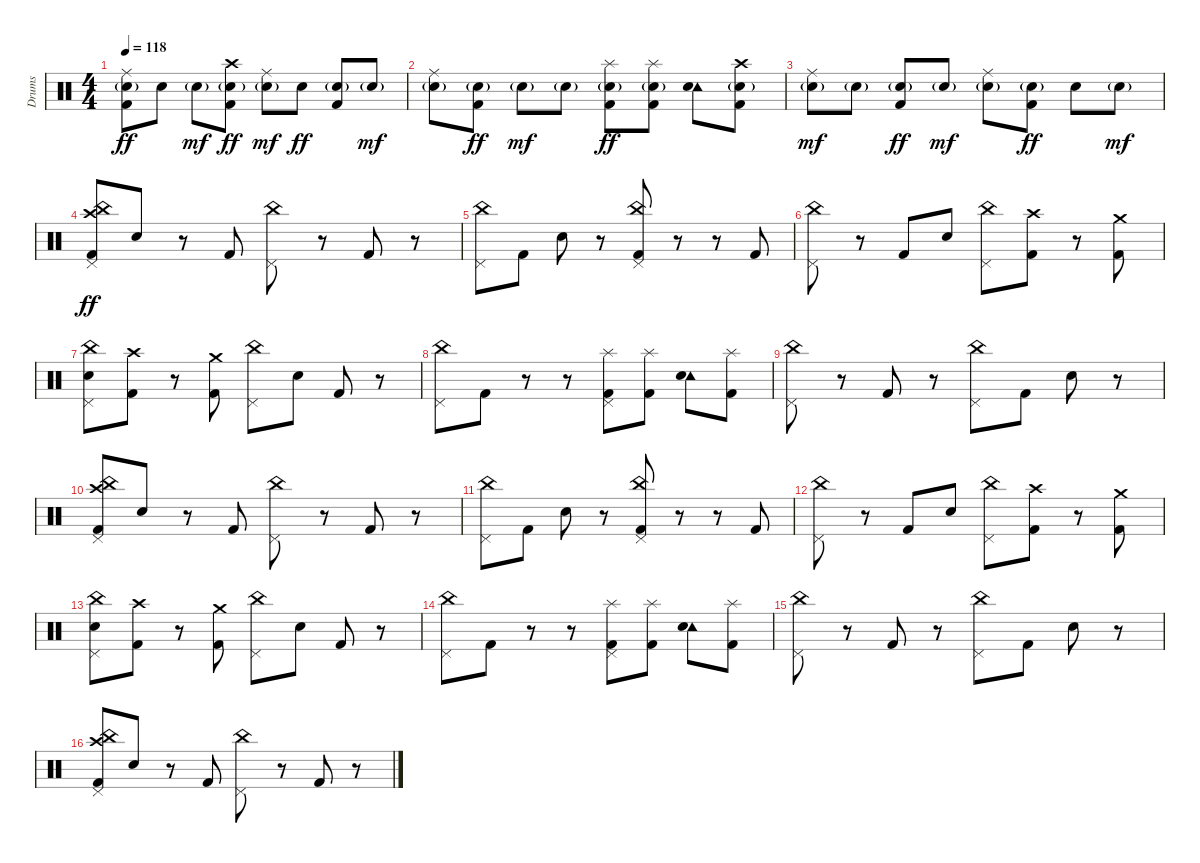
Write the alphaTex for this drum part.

\track ("Drums" "Drums") {instrument percussion}
\staff {score}
\articulation defaults
\ts (4 4)
\tempo 118
\clef neutral
\ks c
("Ride (middle)" "Electric Snare (hit)"{g} "Kick (hit) 2").8{dy ff} "Electric Snare (hit)".8 "Electric Snare (hit)"{g}.8{dy mf} ("Crash high (hit)" "Electric Snare (hit)"{g} "Kick (hit) 2").8{dy ff} ("Ride (middle)" "Electric Snare (hit)"{g}).8{dy mf} "Electric Snare (hit)".8{dy ff} ("Electric Snare (hit)"{g} "Kick (hit) 2").8 "Electric Snare (hit)"{g}.8{dy mf} |
("Ride (middle)" "Electric Snare (hit)"{g}).8 ("Electric Snare (hit)"{g} "Kick (hit) 2").8{dy ff} "Electric Snare (hit)"{g}.8{dy mf} "Electric Snare (hit)"{g}.8 ("Splash (hit)" "Electric Snare (hit)"{g} "Kick (hit) 2").8{dy ff} ("Splash (hit)" "Electric Snare (hit)"{g} "Kick (hit) 2").8 ("Tambourine (hit)" "Electric Snare (hit)").8 ("Crash high (hit)" "Electric Snare (hit)"{g} "Kick (hit) 2").8 |
("Ride (middle)" "Electric Snare (hit)"{g}).8{dy mf} "Electric Snare (hit)"{g}.8 ("Electric Snare (hit)"{g} "Kick (hit) 2").8{dy ff} "Electric Snare (hit)"{g}.8{dy mf} ("Ride (middle)" "Electric Snare (hit)"{g}).8 ("Electric Snare (hit)"{g} "Kick (hit) 2").8{dy ff} "Electric Snare (hit)".8 "Electric Snare (hit)"{g}.8{dy mf} |
\section ("" "")
("Crash high (hit)" "China (hit)" "Pedal Hi-Hat (hit)" "Kick (hit) 2").8{dy ff} "Electric Snare (hit)".8 r.8 "Kick (hit) 2".8 ("China (hit)" "Pedal Hi-Hat (hit)").8 r.8 "Kick (hit) 2".8 r.8 |
("China (hit)" "Pedal Hi-Hat (hit)").8 "Kick (hit) 2".8 "Electric Snare (hit)".8 r.8 ("China (hit)" "Pedal Hi-Hat (hit)" "Kick (hit) 2").8 r.8 r.8 "Kick (hit) 2".8 |
("China (hit)" "Pedal Hi-Hat (hit)").8 r.8 "Kick (hit) 2".8 "Electric Snare (hit)".8 ("China (hit)" "Pedal Hi-Hat (hit)").8 ("Crash high (hit)" "Kick (hit) 2").8 r.8 ("Crash medium (hit)" "Kick (hit) 2").8 |
("China (hit)" "Pedal Hi-Hat (hit)" "Electric Snare (hit)").8 ("Crash high (hit)" "Kick (hit) 2").8 r.8 ("Crash medium (hit)" "Kick (hit) 2").8 ("China (hit)" "Pedal Hi-Hat (hit)").8 "Electric Snare (hit)".8 "Kick (hit) 2".8 r.8 |
("China (hit)" "Pedal Hi-Hat (hit)").8 "Kick (hit) 2".8 r.8 r.8 ("Splash (hit)" "Pedal Hi-Hat (hit)" "Kick (hit) 2").8 ("Splash (hit)" "Kick (hit) 2").8 ("Tambourine (hit)" "Electric Snare (hit)").8 ("Splash (hit)" "Kick (hit) 2").8 |
("China (hit)" "Pedal Hi-Hat (hit)").8 r.8 "Kick (hit) 2".8 r.8 ("China (hit)" "Pedal Hi-Hat (hit)").8 "Kick (hit) 2".8 "Electric Snare (hit)".8 r.8 |
("Crash high (hit)" "China (hit)" "Pedal Hi-Hat (hit)" "Kick (hit) 2").8 "Electric Snare (hit)".8 r.8 "Kick (hit) 2".8 ("China (hit)" "Pedal Hi-Hat (hit)").8 r.8 "Kick (hit) 2".8 r.8 |
("China (hit)" "Pedal Hi-Hat (hit)").8 "Kick (hit) 2".8 "Electric Snare (hit)".8 r.8 ("China (hit)" "Pedal Hi-Hat (hit)" "Kick (hit) 2").8 r.8 r.8 "Kick (hit) 2".8 |
("China (hit)" "Pedal Hi-Hat (hit)").8 r.8 "Kick (hit) 2".8 "Electric Snare (hit)".8 ("China (hit)" "Pedal Hi-Hat (hit)").8 ("Crash high (hit)" "Kick (hit) 2").8 r.8 ("Crash medium (hit)" "Kick (hit) 2").8 |
("China (hit)" "Pedal Hi-Hat (hit)" "Electric Snare (hit)").8 ("Crash high (hit)" "Kick (hit) 2").8 r.8 ("Crash medium (hit)" "Kick (hit) 2").8 ("China (hit)" "Pedal Hi-Hat (hit)").8 "Electric Snare (hit)".8 "Kick (hit) 2".8 r.8 |
("China (hit)" "Pedal Hi-Hat (hit)").8 "Kick (hit) 2".8 r.8 r.8 ("Splash (hit)" "Pedal Hi-Hat (hit)" "Kick (hit) 2").8 ("Splash (hit)" "Kick (hit) 2").8 ("Tambourine (hit)" "Electric Snare (hit)").8 ("Splash (hit)" "Kick (hit) 2").8 |
("China (hit)" "Pedal Hi-Hat (hit)").8 r.8 "Kick (hit) 2".8 r.8 ("China (hit)" "Pedal Hi-Hat (hit)").8 "Kick (hit) 2".8 "Electric Snare (hit)".8 r.8 |
\section ("" "")
("Crash high (hit)" "China (hit)" "Pedal Hi-Hat (hit)" "Kick (hit) 2").8 "Electric Snare (hit)".8 r.8 "Kick (hit) 2".8 ("China (hit)" "Pedal Hi-Hat (hit)").8 r.8 "Kick (hit) 2".8 r.8
